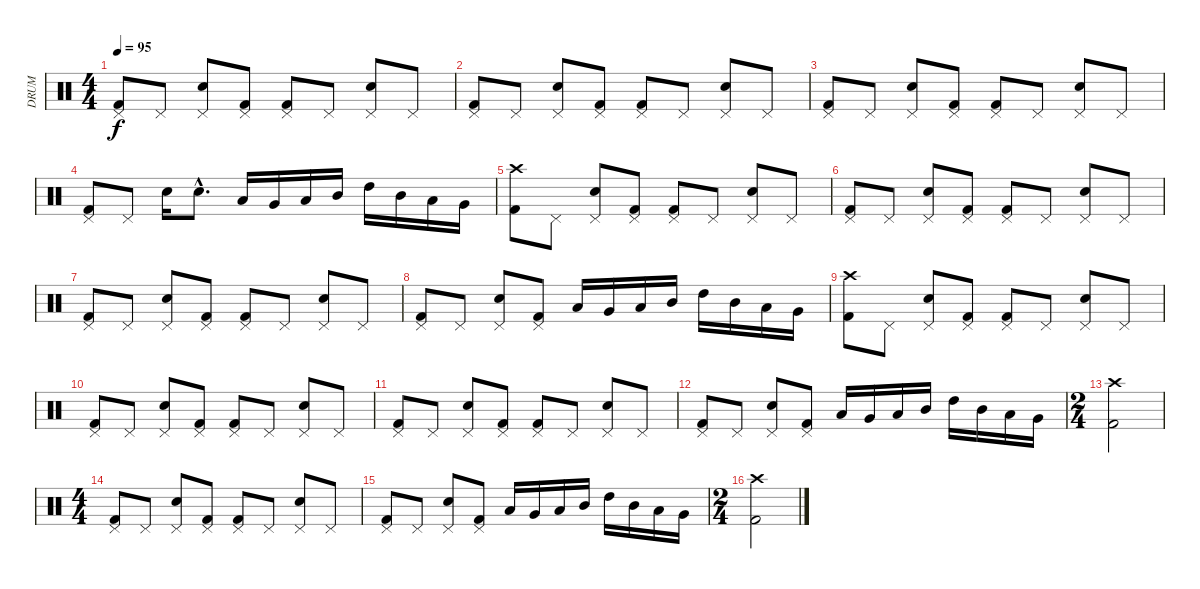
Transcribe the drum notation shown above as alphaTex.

\track ("DRUM" "DRUM") {instrument percussion}
\staff {score}
\articulation defaults
\ts (4 4)
\tempo 95
\clef neutral
\ks c
("Kick (hit) 2" "Pedal Hi-Hat (hit)").8{dy f} "Pedal Hi-Hat (hit)".8 ("Electric Snare (hit)" "Pedal Hi-Hat (hit)").8 ("Kick (hit) 2" "Pedal Hi-Hat (hit)").8 ("Kick (hit) 2" "Pedal Hi-Hat (hit)").8 "Pedal Hi-Hat (hit)".8 ("Electric Snare (hit)" "Pedal Hi-Hat (hit)").8 "Pedal Hi-Hat (hit)".8 |
("Kick (hit) 2" "Pedal Hi-Hat (hit)").8 "Pedal Hi-Hat (hit)".8 ("Electric Snare (hit)" "Pedal Hi-Hat (hit)").8 ("Kick (hit) 2" "Pedal Hi-Hat (hit)").8 ("Kick (hit) 2" "Pedal Hi-Hat (hit)").8 "Pedal Hi-Hat (hit)".8 ("Electric Snare (hit)" "Pedal Hi-Hat (hit)").8 "Pedal Hi-Hat (hit)".8 |
("Kick (hit) 2" "Pedal Hi-Hat (hit)").8 "Pedal Hi-Hat (hit)".8 ("Electric Snare (hit)" "Pedal Hi-Hat (hit)").8 ("Kick (hit) 2" "Pedal Hi-Hat (hit)").8 ("Kick (hit) 2" "Pedal Hi-Hat (hit)").8 "Pedal Hi-Hat (hit)".8 ("Electric Snare (hit)" "Pedal Hi-Hat (hit)").8 "Pedal Hi-Hat (hit)".8 |
("Kick (hit) 2" "Pedal Hi-Hat (hit)").8 "Pedal Hi-Hat (hit)".8 "Electric Snare (hit)".16 "Electric Snare (hit)"{hac}.8{d} "Low Floor Tom (hit)".16 "Very Low Tom (hit)".16 "Low Tom (hit)".16 "Mid Tom (hit)".16 "High Tom (hit)".16 "Mid Tom (hit)".16 "Low Tom (hit)".16 "Very Low Tom (hit)".16 |
("Kick (hit) 2" "Crash high (hit)").8 "Pedal Hi-Hat (hit)".8 ("Electric Snare (hit)" "Pedal Hi-Hat (hit)").8 ("Kick (hit) 2" "Pedal Hi-Hat (hit)").8 ("Kick (hit) 2" "Pedal Hi-Hat (hit)").8 "Pedal Hi-Hat (hit)".8 ("Electric Snare (hit)" "Pedal Hi-Hat (hit)").8 "Pedal Hi-Hat (hit)".8 |
("Kick (hit) 2" "Pedal Hi-Hat (hit)").8 "Pedal Hi-Hat (hit)".8 ("Electric Snare (hit)" "Pedal Hi-Hat (hit)").8 ("Kick (hit) 2" "Pedal Hi-Hat (hit)").8 ("Kick (hit) 2" "Pedal Hi-Hat (hit)").8 "Pedal Hi-Hat (hit)".8 ("Electric Snare (hit)" "Pedal Hi-Hat (hit)").8 "Pedal Hi-Hat (hit)".8 |
("Kick (hit) 2" "Pedal Hi-Hat (hit)").8 "Pedal Hi-Hat (hit)".8 ("Electric Snare (hit)" "Pedal Hi-Hat (hit)").8 ("Kick (hit) 2" "Pedal Hi-Hat (hit)").8 ("Kick (hit) 2" "Pedal Hi-Hat (hit)").8 "Pedal Hi-Hat (hit)".8 ("Electric Snare (hit)" "Pedal Hi-Hat (hit)").8 "Pedal Hi-Hat (hit)".8 |
("Kick (hit) 2" "Pedal Hi-Hat (hit)").8 "Pedal Hi-Hat (hit)".8 ("Electric Snare (hit)" "Pedal Hi-Hat (hit)").8 ("Kick (hit) 2" "Pedal Hi-Hat (hit)").8 "Low Floor Tom (hit)".16 "Very Low Tom (hit)".16 "Low Tom (hit)".16 "Mid Tom (hit)".16 "High Tom (hit)".16 "Mid Tom (hit)".16 "Low Tom (hit)".16 "Very Low Tom (hit)".16 |
("Kick (hit) 2" "Crash high (hit)").8 "Pedal Hi-Hat (hit)".8 ("Electric Snare (hit)" "Pedal Hi-Hat (hit)").8 ("Kick (hit) 2" "Pedal Hi-Hat (hit)").8 ("Kick (hit) 2" "Pedal Hi-Hat (hit)").8 "Pedal Hi-Hat (hit)".8 ("Electric Snare (hit)" "Pedal Hi-Hat (hit)").8 "Pedal Hi-Hat (hit)".8 |
("Kick (hit) 2" "Pedal Hi-Hat (hit)").8 "Pedal Hi-Hat (hit)".8 ("Electric Snare (hit)" "Pedal Hi-Hat (hit)").8 ("Kick (hit) 2" "Pedal Hi-Hat (hit)").8 ("Kick (hit) 2" "Pedal Hi-Hat (hit)").8 "Pedal Hi-Hat (hit)".8 ("Electric Snare (hit)" "Pedal Hi-Hat (hit)").8 "Pedal Hi-Hat (hit)".8 |
("Kick (hit) 2" "Pedal Hi-Hat (hit)").8 "Pedal Hi-Hat (hit)".8 ("Electric Snare (hit)" "Pedal Hi-Hat (hit)").8 ("Kick (hit) 2" "Pedal Hi-Hat (hit)").8 ("Kick (hit) 2" "Pedal Hi-Hat (hit)").8 "Pedal Hi-Hat (hit)".8 ("Electric Snare (hit)" "Pedal Hi-Hat (hit)").8 "Pedal Hi-Hat (hit)".8 |
("Kick (hit) 2" "Pedal Hi-Hat (hit)").8 "Pedal Hi-Hat (hit)".8 ("Electric Snare (hit)" "Pedal Hi-Hat (hit)").8 ("Kick (hit) 2" "Pedal Hi-Hat (hit)").8 "Low Floor Tom (hit)".16 "Very Low Tom (hit)".16 "Low Tom (hit)".16 "Mid Tom (hit)".16 "High Tom (hit)".16 "Mid Tom (hit)".16 "Low Tom (hit)".16 "Very Low Tom (hit)".16 |
\ts (2 4)
("Kick (hit) 2" "Crash high (hit)").2 |
\ts (4 4)
("Kick (hit) 2" "Pedal Hi-Hat (hit)").8 "Pedal Hi-Hat (hit)".8 ("Electric Snare (hit)" "Pedal Hi-Hat (hit)").8 ("Kick (hit) 2" "Pedal Hi-Hat (hit)").8 ("Kick (hit) 2" "Pedal Hi-Hat (hit)").8 "Pedal Hi-Hat (hit)".8 ("Electric Snare (hit)" "Pedal Hi-Hat (hit)").8 "Pedal Hi-Hat (hit)".8 |
("Kick (hit) 2" "Pedal Hi-Hat (hit)").8 "Pedal Hi-Hat (hit)".8 ("Electric Snare (hit)" "Pedal Hi-Hat (hit)").8 ("Kick (hit) 2" "Pedal Hi-Hat (hit)").8 "Low Floor Tom (hit)".16 "Very Low Tom (hit)".16 "Low Tom (hit)".16 "Mid Tom (hit)".16 "High Tom (hit)".16 "Mid Tom (hit)".16 "Low Tom (hit)".16 "Very Low Tom (hit)".16 |
\ts (2 4)
("Kick (hit) 2" "Crash high (hit)").2
